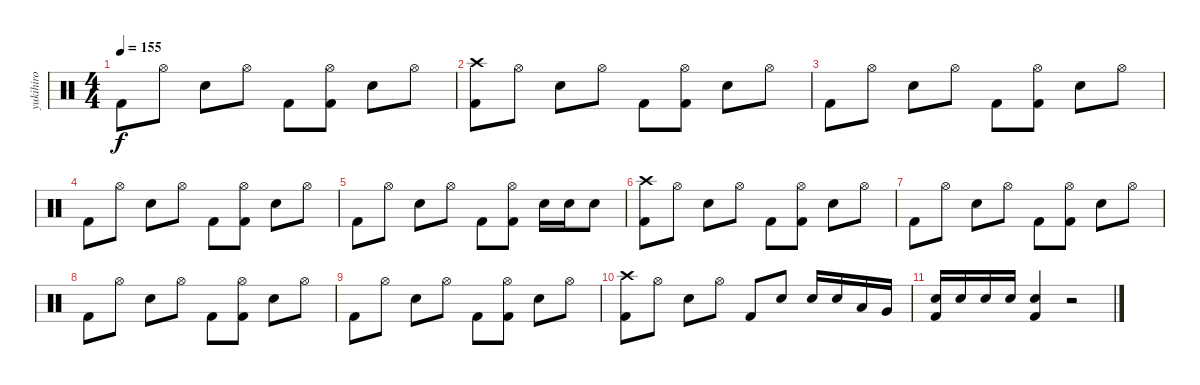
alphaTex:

\track ("yukihiro" "yukihiro") {instrument percussion}
\staff {score}
\articulation defaults
\ts (4 4)
\tempo 155
\clef neutral
\ks c "Kick (hit) 2".8{dy f} "Hi-Hat (open)".8 "Snare (hit) 2".8 "Hi-Hat (open)".8 "Kick (hit) 2".8
("Hi-Hat (open)" "Kick (hit) 2").8 "Snare (hit) 2".8 "Hi-Hat (open)".8 |
("Crash high (hit)" "Kick (hit) 2").8 "Hi-Hat (open)".8 "Snare (hit) 2".8 "Hi-Hat (open)".8 "Kick (hit) 2".8 ("Hi-Hat (open)" "Kick (hit) 2").8 "Snare (hit) 2".8 "Hi-Hat (open)".8 |
"Kick (hit) 2".8 "Hi-Hat (open)".8 "Snare (hit) 2".8 "Hi-Hat (open)".8 "Kick (hit) 2".8 ("Hi-Hat (open)" "Kick (hit) 2").8 "Snare (hit) 2".8 "Hi-Hat (open)".8 |
"Kick (hit) 2".8 "Hi-Hat (open)".8 "Snare (hit) 2".8 "Hi-Hat (open)".8 "Kick (hit) 2".8 ("Hi-Hat (open)" "Kick (hit) 2").8 "Snare (hit) 2".8 "Hi-Hat (open)".8 |
"Kick (hit) 2".8 "Hi-Hat (open)".8 "Snare (hit) 2".8 "Hi-Hat (open)".8 "Kick (hit) 2".8 ("Hi-Hat (open)" "Kick (hit) 2").8 "Snare (hit) 2".16 "Snare (hit) 2".16 "Snare (hit) 2".8 |
("Crash high (hit)" "Kick (hit) 2").8 "Hi-Hat (open)".8 "Snare (hit) 2".8 "Hi-Hat (open)".8 "Kick (hit) 2".8 ("Hi-Hat (open)" "Kick (hit) 2").8 "Snare (hit) 2".8 "Hi-Hat (open)".8 |
"Kick (hit) 2".8 "Hi-Hat (open)".8 "Snare (hit) 2".8 "Hi-Hat (open)".8 "Kick (hit) 2".8 ("Hi-Hat (open)" "Kick (hit) 2").8 "Snare (hit) 2".8 "Hi-Hat (open)".8 |
"Kick (hit) 2".8 "Hi-Hat (open)".8 "Snare (hit) 2".8 "Hi-Hat (open)".8 "Kick (hit) 2".8 ("Hi-Hat (open)" "Kick (hit) 2").8 "Snare (hit) 2".8 "Hi-Hat (open)".8 |
"Kick (hit) 2".8 "Hi-Hat (open)".8 "Snare (hit) 2".8 "Hi-Hat (open)".8 "Kick (hit) 2".8 ("Hi-Hat (open)" "Kick (hit) 2").8 "Snare (hit) 2".8 "Hi-Hat (open)".8 |
("Crash high (hit)" "Kick (hit) 2").8 "Hi-Hat (open)".8 "Snare (hit) 2".8 "Hi-Hat (open)".8 "Kick (hit) 2".8 "Snare (hit) 2".8 "Snare (hit) 2".16 "Snare (hit) 2".16 "Low Floor Tom (hit)".16 "Very Low Tom (hit)".16 |
("Snare (hit) 2" "Kick (hit) 2").16 "Snare (hit) 2".16 "Snare (hit) 2".16 "Snare (hit) 2".16 ("Snare (hit) 2" "Kick (hit) 2").4 r.2
